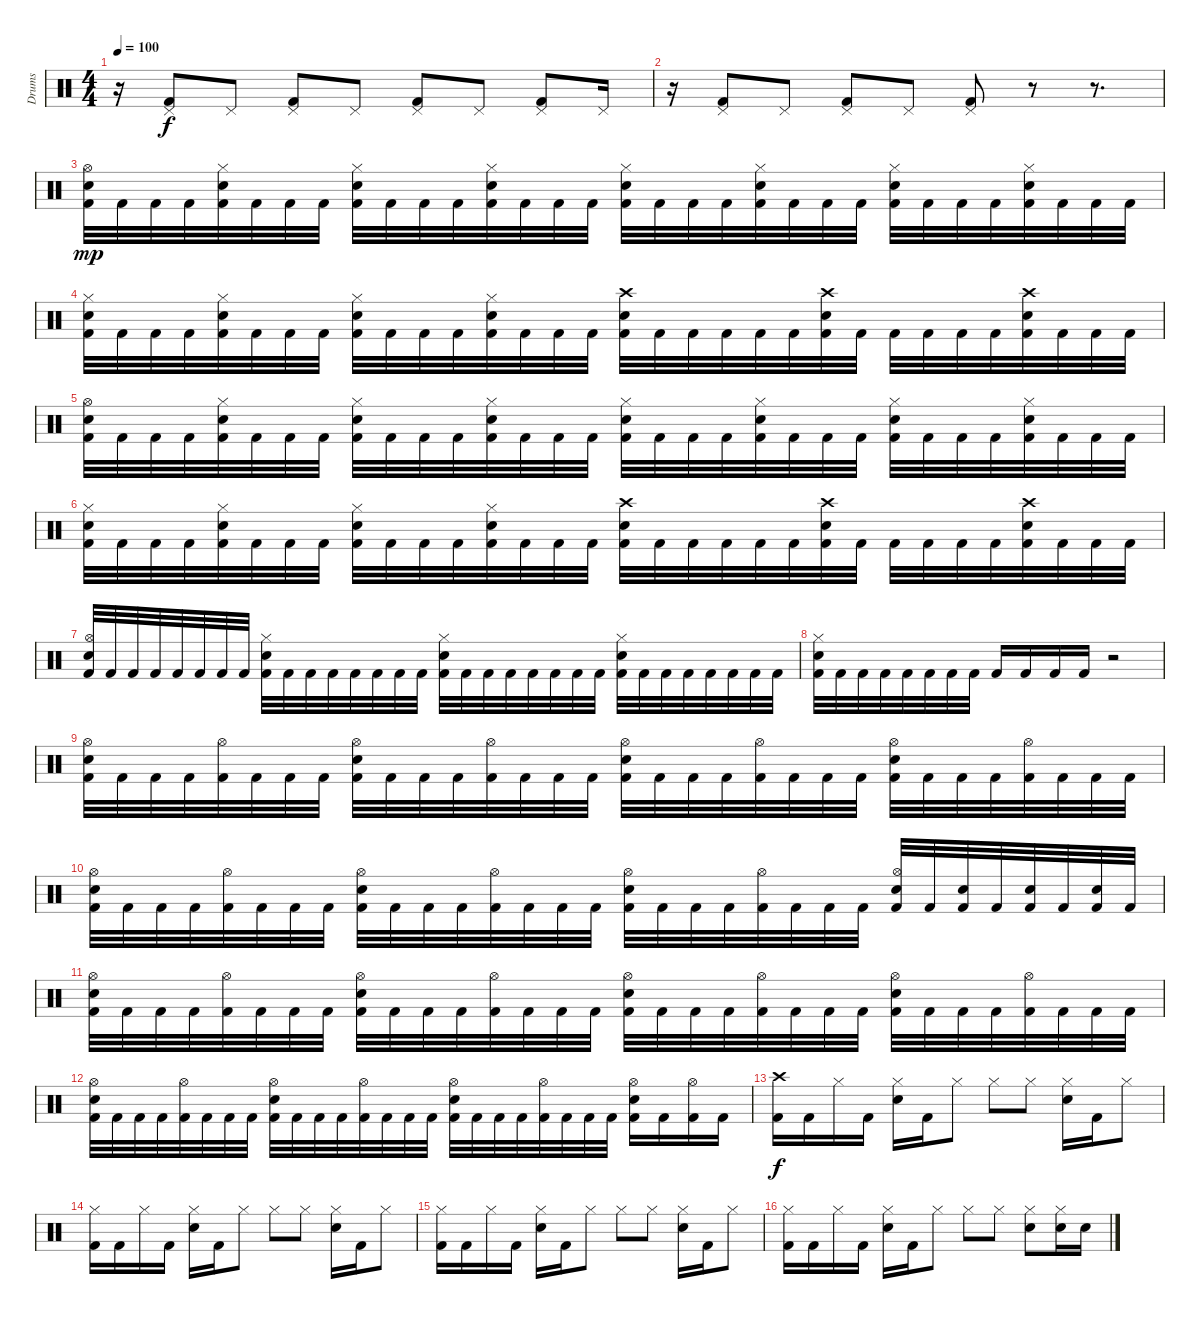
\track ("Drums" "Drums") {instrument percussion}
\staff {score}
\articulation defaults
\ts (4 4)
\tempo 100
\clef neutral
\ks c
r.16{dy f} ("Pedal Hi-Hat (hit)" "Kick (hit) 2").8 "Pedal Hi-Hat (hit)".8 ("Pedal Hi-Hat (hit)" "Kick (hit) 2").8 "Pedal Hi-Hat (hit)".8 ("Pedal Hi-Hat (hit)" "Kick (hit) 2").8 "Pedal Hi-Hat (hit)".8 ("Pedal Hi-Hat (hit)" "Kick (hit) 2").8 "Pedal Hi-Hat (hit)".16 |
r.16 ("Pedal Hi-Hat (hit)" "Kick (hit) 2").8 "Pedal Hi-Hat (hit)".8 ("Pedal Hi-Hat (hit)" "Kick (hit) 2").8 "Pedal Hi-Hat (hit)".8 ("Pedal Hi-Hat (hit)" "Kick (hit) 2").8 r.8 r.8{d} |
("Hi-Hat (open)" "Electric Snare (hit)" "Kick (hit) 2").32{dy mp} "Kick (hit) 2".32 "Kick (hit) 2".32 "Kick (hit) 2".32 ("Hi-Hat (closed)" "Electric Snare (hit)" "Kick (hit) 2").32 "Kick (hit) 2".32 "Kick (hit) 2".32 "Kick (hit) 2".32 ("Hi-Hat (closed)" "Electric Snare (hit)" "Kick (hit) 2").32 "Kick (hit) 2".32 "Kick (hit) 2".32 "Kick (hit) 2".32 ("Hi-Hat (closed)" "Electric Snare (hit)" "Kick (hit) 2").32 "Kick (hit) 2".32 "Kick (hit) 2".32 "Kick (hit) 2".32 ("Hi-Hat (closed)" "Electric Snare (hit)" "Kick (hit) 2").32 "Kick (hit) 2".32 "Kick (hit) 2".32 "Kick (hit) 2".32 ("Hi-Hat (closed)" "Electric Snare (hit)" "Kick (hit) 2").32 "Kick (hit) 2".32 "Kick (hit) 2".32 "Kick (hit) 2".32 ("Hi-Hat (closed)" "Electric Snare (hit)" "Kick (hit) 2").32 "Kick (hit) 2".32 "Kick (hit) 2".32 "Kick (hit) 2".32 ("Hi-Hat (closed)" "Electric Snare (hit)" "Kick (hit) 2").32 "Kick (hit) 2".32 "Kick (hit) 2".32 "Kick (hit) 2".32 |
("Hi-Hat (closed)" "Electric Snare (hit)" "Kick (hit) 2").32 "Kick (hit) 2".32 "Kick (hit) 2".32 "Kick (hit) 2".32 ("Hi-Hat (closed)" "Electric Snare (hit)" "Kick (hit) 2").32 "Kick (hit) 2".32 "Kick (hit) 2".32 "Kick (hit) 2".32 ("Hi-Hat (closed)" "Electric Snare (hit)" "Kick (hit) 2").32 "Kick (hit) 2".32 "Kick (hit) 2".32 "Kick (hit) 2".32 ("Hi-Hat (closed)" "Electric Snare (hit)" "Kick (hit) 2").32 "Kick (hit) 2".32 "Kick (hit) 2".32 "Kick (hit) 2".32 ("Crash high (hit)" "Electric Snare (hit)" "Kick (hit) 2").32 "Kick (hit) 2".32 "Kick (hit) 2".32 "Kick (hit) 2".32 "Kick (hit) 2".32 "Kick (hit) 2".32 ("Crash high (hit)" "Electric Snare (hit)" "Kick (hit) 2").32 "Kick (hit) 2".32 "Kick (hit) 2".32 "Kick (hit) 2".32 "Kick (hit) 2".32 "Kick (hit) 2".32 ("Crash high (hit)" "Electric Snare (hit)" "Kick (hit) 2").32 "Kick (hit) 2".32 "Kick (hit) 2".32 "Kick (hit) 2".32 |
("Hi-Hat (open)" "Electric Snare (hit)" "Kick (hit) 2").32 "Kick (hit) 2".32 "Kick (hit) 2".32 "Kick (hit) 2".32 ("Hi-Hat (closed)" "Electric Snare (hit)" "Kick (hit) 2").32 "Kick (hit) 2".32 "Kick (hit) 2".32 "Kick (hit) 2".32 ("Hi-Hat (closed)" "Electric Snare (hit)" "Kick (hit) 2").32 "Kick (hit) 2".32 "Kick (hit) 2".32 "Kick (hit) 2".32 ("Hi-Hat (closed)" "Electric Snare (hit)" "Kick (hit) 2").32 "Kick (hit) 2".32 "Kick (hit) 2".32 "Kick (hit) 2".32 ("Hi-Hat (closed)" "Electric Snare (hit)" "Kick (hit) 2").32 "Kick (hit) 2".32 "Kick (hit) 2".32 "Kick (hit) 2".32 ("Hi-Hat (closed)" "Electric Snare (hit)" "Kick (hit) 2").32 "Kick (hit) 2".32 "Kick (hit) 2".32 "Kick (hit) 2".32 ("Hi-Hat (closed)" "Electric Snare (hit)" "Kick (hit) 2").32 "Kick (hit) 2".32 "Kick (hit) 2".32 "Kick (hit) 2".32 ("Hi-Hat (closed)" "Electric Snare (hit)" "Kick (hit) 2").32 "Kick (hit) 2".32 "Kick (hit) 2".32 "Kick (hit) 2".32 |
("Hi-Hat (closed)" "Electric Snare (hit)" "Kick (hit) 2").32 "Kick (hit) 2".32 "Kick (hit) 2".32 "Kick (hit) 2".32 ("Hi-Hat (closed)" "Electric Snare (hit)" "Kick (hit) 2").32 "Kick (hit) 2".32 "Kick (hit) 2".32 "Kick (hit) 2".32 ("Hi-Hat (closed)" "Electric Snare (hit)" "Kick (hit) 2").32 "Kick (hit) 2".32 "Kick (hit) 2".32 "Kick (hit) 2".32 ("Hi-Hat (closed)" "Electric Snare (hit)" "Kick (hit) 2").32 "Kick (hit) 2".32 "Kick (hit) 2".32 "Kick (hit) 2".32 ("Crash high (hit)" "Electric Snare (hit)" "Kick (hit) 2").32 "Kick (hit) 2".32 "Kick (hit) 2".32 "Kick (hit) 2".32 "Kick (hit) 2".32 "Kick (hit) 2".32 ("Crash high (hit)" "Electric Snare (hit)" "Kick (hit) 2").32 "Kick (hit) 2".32 "Kick (hit) 2".32 "Kick (hit) 2".32 "Kick (hit) 2".32 "Kick (hit) 2".32 ("Crash high (hit)" "Electric Snare (hit)" "Kick (hit) 2").32 "Kick (hit) 2".32 "Kick (hit) 2".32 "Kick (hit) 2".32 |
("Hi-Hat (open)" "Electric Snare (hit)" "Kick (hit) 2").32 "Kick (hit) 2".32 "Kick (hit) 2".32 "Kick (hit) 2".32 "Kick (hit) 2".32 "Kick (hit) 2".32 "Kick (hit) 2".32 "Kick (hit) 2".32 ("Hi-Hat (closed)" "Electric Snare (hit)" "Kick (hit) 2").32 "Kick (hit) 2".32 "Kick (hit) 2".32 "Kick (hit) 2".32 "Kick (hit) 2".32 "Kick (hit) 2".32 "Kick (hit) 2".32 "Kick (hit) 2".32 ("Hi-Hat (closed)" "Electric Snare (hit)" "Kick (hit) 2").32 "Kick (hit) 2".32 "Kick (hit) 2".32 "Kick (hit) 2".32 "Kick (hit) 2".32 "Kick (hit) 2".32 "Kick (hit) 2".32 "Kick (hit) 2".32 ("Hi-Hat (closed)" "Electric Snare (hit)" "Kick (hit) 2").32 "Kick (hit) 2".32 "Kick (hit) 2".32 "Kick (hit) 2".32 "Kick (hit) 2".32 "Kick (hit) 2".32 "Kick (hit) 2".32 "Kick (hit) 2".32 |
("Hi-Hat (closed)" "Electric Snare (hit)" "Kick (hit) 2").32 "Kick (hit) 2".32 "Kick (hit) 2".32 "Kick (hit) 2".32 "Kick (hit) 2".32 "Kick (hit) 2".32 "Kick (hit) 2".32 "Kick (hit) 2".32 "Kick (hit) 2".16 "Kick (hit) 2".16 "Kick (hit) 2".16 "Kick (hit) 2".16 r.2 |
("Hi-Hat (open)" "Electric Snare (hit)" "Kick (hit) 2").32 "Kick (hit) 2".32 "Kick (hit) 2".32 "Kick (hit) 2".32 ("Hi-Hat (open)" "Kick (hit) 2").32 "Kick (hit) 2".32 "Kick (hit) 2".32 "Kick (hit) 2".32 ("Hi-Hat (open)" "Electric Snare (hit)" "Kick (hit) 2").32 "Kick (hit) 2".32 "Kick (hit) 2".32 "Kick (hit) 2".32 ("Hi-Hat (open)" "Kick (hit) 2").32 "Kick (hit) 2".32 "Kick (hit) 2".32 "Kick (hit) 2".32 ("Hi-Hat (open)" "Electric Snare (hit)" "Kick (hit) 2").32 "Kick (hit) 2".32 "Kick (hit) 2".32 "Kick (hit) 2".32 ("Hi-Hat (open)" "Kick (hit) 2").32 "Kick (hit) 2".32 "Kick (hit) 2".32 "Kick (hit) 2".32 ("Hi-Hat (open)" "Electric Snare (hit)" "Kick (hit) 2").32 "Kick (hit) 2".32 "Kick (hit) 2".32 "Kick (hit) 2".32 ("Hi-Hat (open)" "Kick (hit) 2").32 "Kick (hit) 2".32 "Kick (hit) 2".32 "Kick (hit) 2".32 |
("Hi-Hat (open)" "Electric Snare (hit)" "Kick (hit) 2").32 "Kick (hit) 2".32 "Kick (hit) 2".32 "Kick (hit) 2".32 ("Hi-Hat (open)" "Kick (hit) 2").32 "Kick (hit) 2".32 "Kick (hit) 2".32 "Kick (hit) 2".32 ("Hi-Hat (open)" "Electric Snare (hit)" "Kick (hit) 2").32 "Kick (hit) 2".32 "Kick (hit) 2".32 "Kick (hit) 2".32 ("Hi-Hat (open)" "Kick (hit) 2").32 "Kick (hit) 2".32 "Kick (hit) 2".32 "Kick (hit) 2".32 ("Hi-Hat (open)" "Electric Snare (hit)" "Kick (hit) 2").32 "Kick (hit) 2".32 "Kick (hit) 2".32 "Kick (hit) 2".32 ("Hi-Hat (open)" "Kick (hit) 2").32 "Kick (hit) 2".32 "Kick (hit) 2".32 "Kick (hit) 2".32 ("Hi-Hat (open)" "Electric Snare (hit)" "Kick (hit) 2").32 "Kick (hit) 2".32 ("Electric Snare (hit)" "Kick (hit) 2").32 "Kick (hit) 2".32 ("Electric Snare (hit)" "Kick (hit) 2").32 "Kick (hit) 2".32 ("Electric Snare (hit)" "Kick (hit) 2").32 "Kick (hit) 2".32 |
("Hi-Hat (open)" "Electric Snare (hit)" "Kick (hit) 2").32 "Kick (hit) 2".32 "Kick (hit) 2".32 "Kick (hit) 2".32 ("Hi-Hat (open)" "Kick (hit) 2").32 "Kick (hit) 2".32 "Kick (hit) 2".32 "Kick (hit) 2".32 ("Hi-Hat (open)" "Electric Snare (hit)" "Kick (hit) 2").32 "Kick (hit) 2".32 "Kick (hit) 2".32 "Kick (hit) 2".32 ("Hi-Hat (open)" "Kick (hit) 2").32 "Kick (hit) 2".32 "Kick (hit) 2".32 "Kick (hit) 2".32 ("Hi-Hat (open)" "Electric Snare (hit)" "Kick (hit) 2").32 "Kick (hit) 2".32 "Kick (hit) 2".32 "Kick (hit) 2".32 ("Hi-Hat (open)" "Kick (hit) 2").32 "Kick (hit) 2".32 "Kick (hit) 2".32 "Kick (hit) 2".32 ("Hi-Hat (open)" "Electric Snare (hit)" "Kick (hit) 2").32 "Kick (hit) 2".32 "Kick (hit) 2".32 "Kick (hit) 2".32 ("Hi-Hat (open)" "Kick (hit) 2").32 "Kick (hit) 2".32 "Kick (hit) 2".32 "Kick (hit) 2".32 |
("Hi-Hat (open)" "Electric Snare (hit)" "Kick (hit) 2").32 "Kick (hit) 2".32 "Kick (hit) 2".32 "Kick (hit) 2".32 ("Hi-Hat (open)" "Kick (hit) 2").32 "Kick (hit) 2".32 "Kick (hit) 2".32 "Kick (hit) 2".32 ("Hi-Hat (open)" "Electric Snare (hit)" "Kick (hit) 2").32 "Kick (hit) 2".32 "Kick (hit) 2".32 "Kick (hit) 2".32 ("Hi-Hat (open)" "Kick (hit) 2").32 "Kick (hit) 2".32 "Kick (hit) 2".32 "Kick (hit) 2".32 ("Hi-Hat (open)" "Electric Snare (hit)" "Kick (hit) 2").32 "Kick (hit) 2".32 "Kick (hit) 2".32 "Kick (hit) 2".32 ("Hi-Hat (open)" "Kick (hit) 2").32 "Kick (hit) 2".32 "Kick (hit) 2".32 "Kick (hit) 2".32 ("Hi-Hat (open)" "Electric Snare (hit)" "Kick (hit) 2").16 "Kick (hit) 2".16 ("Hi-Hat (open)" "Kick (hit) 2").16 "Kick (hit) 2".16 |
("Crash high (hit)" "Kick (hit) 2").16{dy f} "Kick (hit) 2".16 "Hi-Hat (closed)".16 "Kick (hit) 2".16 ("Hi-Hat (closed)" "Electric Snare (hit)").16 "Kick (hit) 2".16 "Hi-Hat (closed)".8 "Hi-Hat (closed)".8 "Hi-Hat (closed)".8 ("Hi-Hat (closed)" "Electric Snare (hit)").16 "Kick (hit) 2".16 "Hi-Hat (closed)".8 |
("Hi-Hat (closed)" "Kick (hit) 2").16 "Kick (hit) 2".16 "Hi-Hat (closed)".16 "Kick (hit) 2".16 ("Hi-Hat (closed)" "Electric Snare (hit)").16 "Kick (hit) 2".16 "Hi-Hat (closed)".8 "Hi-Hat (closed)".8 "Hi-Hat (closed)".8 ("Hi-Hat (closed)" "Electric Snare (hit)").16 "Kick (hit) 2".16 "Hi-Hat (closed)".8 |
("Hi-Hat (closed)" "Kick (hit) 2").16 "Kick (hit) 2".16 "Hi-Hat (closed)".16 "Kick (hit) 2".16 ("Hi-Hat (closed)" "Electric Snare (hit)").16 "Kick (hit) 2".16 "Hi-Hat (closed)".8 "Hi-Hat (closed)".8 "Hi-Hat (closed)".8 ("Hi-Hat (closed)" "Electric Snare (hit)").16 "Kick (hit) 2".16 "Hi-Hat (closed)".8 |
("Hi-Hat (closed)" "Kick (hit) 2").16 "Kick (hit) 2".16 "Hi-Hat (closed)".16 "Kick (hit) 2".16 ("Hi-Hat (closed)" "Electric Snare (hit)").16 "Kick (hit) 2".16 "Hi-Hat (closed)".8 "Hi-Hat (closed)".8 "Hi-Hat (closed)".8 ("Hi-Hat (closed)" "Electric Snare (hit)").8 ("Hi-Hat (closed)" "Electric Snare (hit)").16 "Electric Snare (hit)".16
